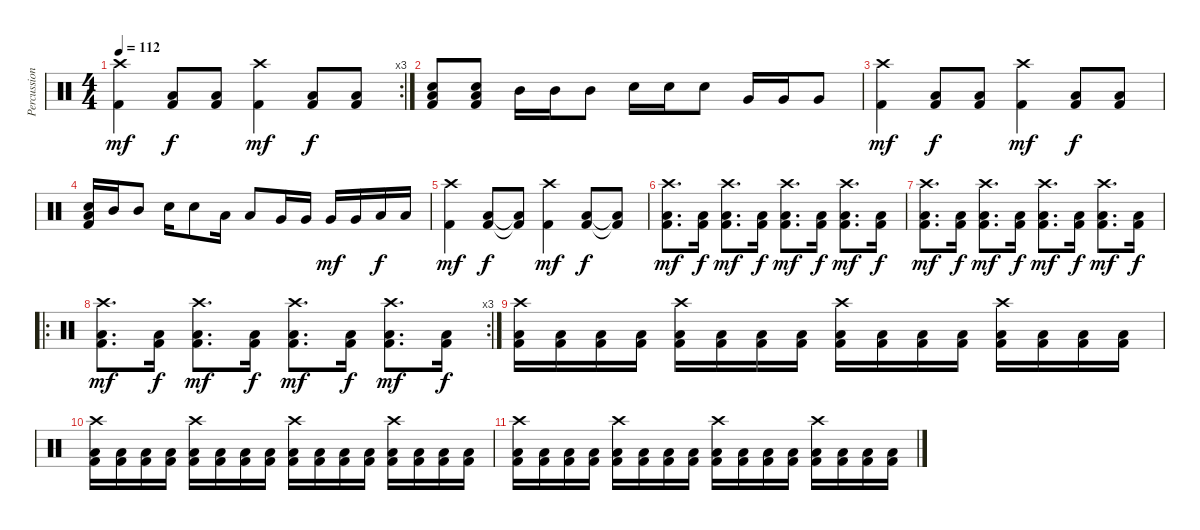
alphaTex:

\track ("Percussion" "Percussion") {instrument percussion}
\staff {score}
\articulation defaults
\rc 3
\ts (4 4)
\tempo 112
\clef neutral
\ks c
("Crash high (hit)" "Kick (hit) 2").4{dy mf} ("Low Floor Tom (hit)" "Kick (hit) 2").8{dy f} ("Low Floor Tom (hit)" "Kick (hit) 2").8 ("Crash high (hit)" "Kick (hit) 2").4{dy mf} ("Low Floor Tom (hit)" "Kick (hit) 2").8{dy f} ("Low Floor Tom (hit)" "Kick (hit) 2").8 |
("Low Floor Tom (hit)" "Snare (hit) 2" "Kick (hit) 2").8 ("Low Floor Tom (hit)" "Snare (hit) 2" "Kick (hit) 2").8 "Mid Tom (hit)".16 "Mid Tom (hit)".16 "Mid Tom (hit)".8 "Snare (hit) 2".16 "Snare (hit) 2".16 "Snare (hit) 2".8 "Very Low Tom (hit)".16 "Very Low Tom (hit)".16 "Very Low Tom (hit)".8 |
("Crash high (hit)" "Kick (hit) 2").4{dy mf} ("Low Floor Tom (hit)" "Kick (hit) 2").8{dy f} ("Low Floor Tom (hit)" "Kick (hit) 2").8 ("Crash high (hit)" "Kick (hit) 2").4{dy mf} ("Low Floor Tom (hit)" "Kick (hit) 2").8{dy f} ("Low Floor Tom (hit)" "Kick (hit) 2").8 |
("Snare (hit) 2" "Low Floor Tom (hit)" "Kick (hit) 2").16 "Mid Tom (hit)".16 "Mid Tom (hit)".8 "Snare (hit) 2".16 "Snare (hit) 2".8 "Low Tom (hit)".16 "Low Tom (hit)".8 "Very Low Tom (hit)".16 "Very Low Tom (hit)".16 "Very Low Tom (hit)".16{dy mf} "Very Low Tom (hit)".16 "Low Floor Tom (hit)".16{dy f} "Low Floor Tom (hit)".16 |
("Crash high (hit)" "Kick (hit) 2").4{dy mf} ("Low Floor Tom (hit)" "Kick (hit) 2").8{dy f} ("Low Floor Tom (hit)"{t} "Kick (hit) 2"{t}).8 ("Crash high (hit)" "Kick (hit) 2").4{dy mf} ("Low Floor Tom (hit)" "Kick (hit) 2").8{dy f} ("Low Floor Tom (hit)"{t} "Kick (hit) 2"{t}).8 |
("Crash high (hit)" "Low Floor Tom (hit)" "Kick (hit) 2").8{d dy mf} ("Low Floor Tom (hit)" "Kick (hit) 2").16{dy f} ("Crash high (hit)" "Low Floor Tom (hit)" "Kick (hit) 2").8{d dy mf} ("Low Floor Tom (hit)" "Kick (hit) 2").16{dy f} ("Crash high (hit)" "Low Floor Tom (hit)" "Kick (hit) 2").8{d dy mf} ("Low Floor Tom (hit)" "Kick (hit) 2").16{dy f} ("Crash high (hit)" "Low Floor Tom (hit)" "Kick (hit) 2").8{d dy mf} ("Low Floor Tom (hit)" "Kick (hit) 2").16{dy f} |
("Crash high (hit)" "Low Floor Tom (hit)" "Kick (hit) 2").8{d dy mf} ("Low Floor Tom (hit)" "Kick (hit) 2").16{dy f} ("Crash high (hit)" "Low Floor Tom (hit)" "Kick (hit) 2").8{d dy mf} ("Low Floor Tom (hit)" "Kick (hit) 2").16{dy f} ("Crash high (hit)" "Low Floor Tom (hit)" "Kick (hit) 2").8{d dy mf} ("Low Floor Tom (hit)" "Kick (hit) 2").16{dy f} ("Crash high (hit)" "Low Floor Tom (hit)" "Kick (hit) 2").8{d dy mf} ("Low Floor Tom (hit)" "Kick (hit) 2").16{dy f} |
\ro
\rc 3
("Crash high (hit)" "Low Floor Tom (hit)" "Kick (hit) 2").8{d dy mf} ("Low Floor Tom (hit)" "Kick (hit) 2").16{dy f} ("Crash high (hit)" "Low Floor Tom (hit)" "Kick (hit) 2").8{d dy mf} ("Low Floor Tom (hit)" "Kick (hit) 2").16{dy f} ("Crash high (hit)" "Low Floor Tom (hit)" "Kick (hit) 2").8{d dy mf} ("Low Floor Tom (hit)" "Kick (hit) 2").16{dy f} ("Crash high (hit)" "Low Floor Tom (hit)" "Kick (hit) 2").8{d dy mf} ("Low Floor Tom (hit)" "Kick (hit) 2").16{dy f} |
("Crash high (hit)" "Low Floor Tom (hit)" "Kick (hit) 2").16 ("Low Floor Tom (hit)" "Kick (hit) 2").16 ("Low Floor Tom (hit)" "Kick (hit) 2").16 ("Low Floor Tom (hit)" "Kick (hit) 2").16 ("Crash high (hit)" "Low Floor Tom (hit)" "Kick (hit) 2").16 ("Low Floor Tom (hit)" "Kick (hit) 2").16 ("Low Floor Tom (hit)" "Kick (hit) 2").16 ("Low Floor Tom (hit)" "Kick (hit) 2").16 ("Crash high (hit)" "Low Floor Tom (hit)" "Kick (hit) 2").16 ("Low Floor Tom (hit)" "Kick (hit) 2").16 ("Low Floor Tom (hit)" "Kick (hit) 2").16 ("Low Floor Tom (hit)" "Kick (hit) 2").16 ("Crash high (hit)" "Low Floor Tom (hit)" "Kick (hit) 2").16 ("Low Floor Tom (hit)" "Kick (hit) 2").16 ("Low Floor Tom (hit)" "Kick (hit) 2").16 ("Low Floor Tom (hit)" "Kick (hit) 2").16 |
("Crash high (hit)" "Low Floor Tom (hit)" "Kick (hit) 2").16 ("Low Floor Tom (hit)" "Kick (hit) 2").16 ("Low Floor Tom (hit)" "Kick (hit) 2").16 ("Low Floor Tom (hit)" "Kick (hit) 2").16 ("Crash high (hit)" "Low Floor Tom (hit)" "Kick (hit) 2").16 ("Low Floor Tom (hit)" "Kick (hit) 2").16 ("Low Floor Tom (hit)" "Kick (hit) 2").16 ("Low Floor Tom (hit)" "Kick (hit) 2").16 ("Crash high (hit)" "Low Floor Tom (hit)" "Kick (hit) 2").16 ("Low Floor Tom (hit)" "Kick (hit) 2").16 ("Low Floor Tom (hit)" "Kick (hit) 2").16 ("Low Floor Tom (hit)" "Kick (hit) 2").16 ("Crash high (hit)" "Low Floor Tom (hit)" "Kick (hit) 2").16 ("Low Floor Tom (hit)" "Kick (hit) 2").16 ("Low Floor Tom (hit)" "Kick (hit) 2").16 ("Low Floor Tom (hit)" "Kick (hit) 2").16 |
("Crash high (hit)" "Low Floor Tom (hit)" "Kick (hit) 2").16 ("Low Floor Tom (hit)" "Kick (hit) 2").16 ("Low Floor Tom (hit)" "Kick (hit) 2").16 ("Low Floor Tom (hit)" "Kick (hit) 2").16 ("Crash high (hit)" "Low Floor Tom (hit)" "Kick (hit) 2").16 ("Low Floor Tom (hit)" "Kick (hit) 2").16 ("Low Floor Tom (hit)" "Kick (hit) 2").16 ("Low Floor Tom (hit)" "Kick (hit) 2").16 ("Crash high (hit)" "Low Floor Tom (hit)" "Kick (hit) 2").16 ("Low Floor Tom (hit)" "Kick (hit) 2").16 ("Low Floor Tom (hit)" "Kick (hit) 2").16 ("Low Floor Tom (hit)" "Kick (hit) 2").16 ("Crash high (hit)" "Low Floor Tom (hit)" "Kick (hit) 2").16 ("Low Floor Tom (hit)" "Kick (hit) 2").16 ("Low Floor Tom (hit)" "Kick (hit) 2").16 ("Low Floor Tom (hit)" "Kick (hit) 2").16
